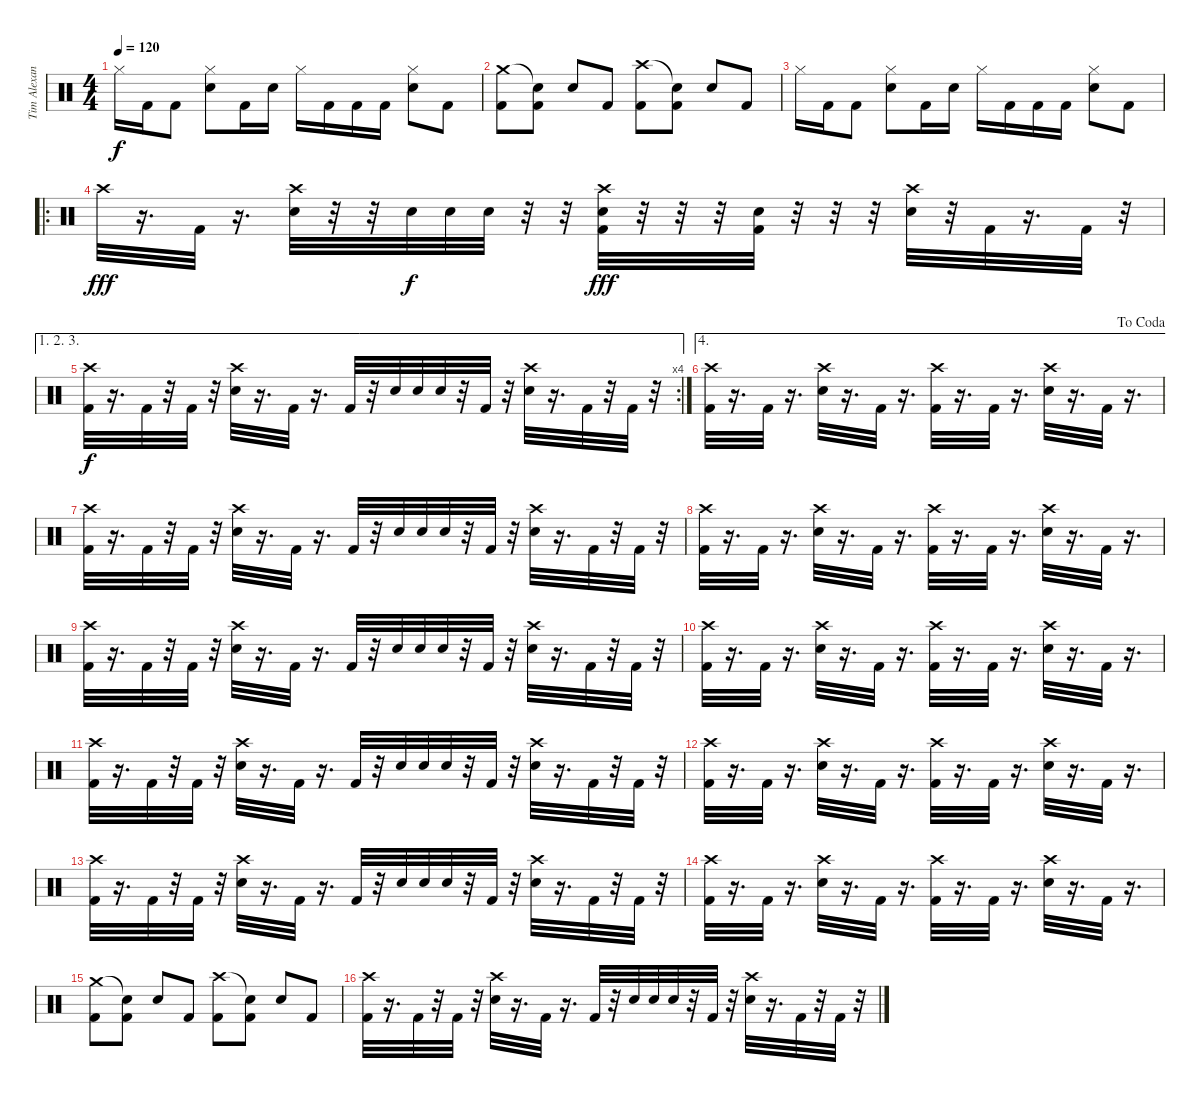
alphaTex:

\track ("Tim Alexander (Percussion)" "Tim Alexan") {instrument percussion}
\staff {score}
\articulation defaults
\ts (4 4)
\tempo 120
\clef neutral
\ks c "Hi-Hat (closed)".16{dy f} "Kick (hit) 2".16 "Kick (hit) 2".8
("Hi-Hat (closed)" "Electric Snare (hit)").8 "Kick (hit) 2".16 "Electric Snare (hit)".16 "Hi-Hat (closed)".16 "Kick (hit) 2".16 "Kick (hit) 2".16 "Kick (hit) 2".16 ("Hi-Hat (closed)" "Electric Snare (hit)").8 "Kick (hit) 2".8 |
("Crash medium (hit)" "Kick (hit) 2").8 ("Snare (hit)"{t} "Kick (hit) 2").8 "Electric Snare (hit)".8 "Kick (hit) 2".8 ("Crash high (hit)" "Kick (hit) 2").8 ("Snare (hit)"{t} "Kick (hit) 2").8 "Electric Snare (hit)".8 "Kick (hit) 2".8 |
"Hi-Hat (closed)".16 "Kick (hit) 2".16 "Kick (hit) 2".8 ("Hi-Hat (closed)" "Electric Snare (hit)").8 "Kick (hit) 2".16 "Electric Snare (hit)".16 "Hi-Hat (closed)".16 "Kick (hit) 2".16 "Kick (hit) 2".16 "Kick (hit) 2".16 ("Hi-Hat (closed)" "Electric Snare (hit)").8 "Kick (hit) 2".8 |
\ro "Crash high (hit)".32{dy fff}
r.16{d} "Kick (hit) 2".32 r.16{d} ("Crash high (hit)" "Electric Snare (hit)").32 r.32 r.32 "Electric Snare (hit)".32{dy f} "Electric Snare (hit)".32 "Electric Snare (hit)".32 r.32 r.32 ("Crash high (hit)" "Electric Snare (hit)" "Kick (hit) 2").32{dy fff} r.32 r.32 r.32 ("Electric Snare (hit)" "Kick (hit) 2").32 r.32 r.32 r.32 ("Crash high (hit)" "Electric Snare (hit)").32 r.32 "Kick (hit) 2".32 r.16{d} "Kick (hit) 2".32 r.32 |
\ae (1 2 3)
\rc 4
("Crash high (hit)" "Kick (hit) 2").32{dy f} r.16{d} "Kick (hit) 2".32 r.32 "Kick (hit) 2".32 r.32 ("Crash high (hit)" "Electric Snare (hit)").32 r.16{d} "Kick (hit) 2".32 r.16{d} "Kick (hit) 2".32 r.32 "Electric Snare (hit)".32 "Electric Snare (hit)".32 "Electric Snare (hit)".32 r.32 "Kick (hit) 2".32 r.32 ("Crash high (hit)" "Electric Snare (hit)").32 r.16{d} "Kick (hit) 2".32 r.32 "Kick (hit) 2".32 r.32 |
\ae 4
\jump dacoda
("Crash high (hit)" "Kick (hit) 2").32 r.16{d} "Kick (hit) 2".32 r.16{d} ("Crash high (hit)" "Electric Snare (hit)").32 r.16{d} "Kick (hit) 2".32 r.16{d} ("Crash high (hit)" "Kick (hit) 2").32 r.16{d} "Kick (hit) 2".32 r.16{d} ("Crash high (hit)" "Electric Snare (hit)").32 r.16{d} "Kick (hit) 2".32 r.16{d} |
("Crash high (hit)" "Kick (hit) 2").32 r.16{d} "Kick (hit) 2".32 r.32 "Kick (hit) 2".32 r.32 ("Crash high (hit)" "Electric Snare (hit)").32 r.16{d} "Kick (hit) 2".32 r.16{d} "Kick (hit) 2".32 r.32 "Electric Snare (hit)".32 "Electric Snare (hit)".32 "Electric Snare (hit)".32 r.32 "Kick (hit) 2".32 r.32 ("Crash high (hit)" "Electric Snare (hit)").32 r.16{d} "Kick (hit) 2".32 r.32 "Kick (hit) 2".32 r.32 |
("Crash high (hit)" "Kick (hit) 2").32 r.16{d} "Kick (hit) 2".32 r.16{d} ("Crash high (hit)" "Electric Snare (hit)").32 r.16{d} "Kick (hit) 2".32 r.16{d} ("Crash high (hit)" "Kick (hit) 2").32 r.16{d} "Kick (hit) 2".32 r.16{d} ("Crash high (hit)" "Electric Snare (hit)").32 r.16{d} "Kick (hit) 2".32 r.16{d} |
("Crash high (hit)" "Kick (hit) 2").32 r.16{d} "Kick (hit) 2".32 r.32 "Kick (hit) 2".32 r.32 ("Crash high (hit)" "Electric Snare (hit)").32 r.16{d} "Kick (hit) 2".32 r.16{d} "Kick (hit) 2".32 r.32 "Electric Snare (hit)".32 "Electric Snare (hit)".32 "Electric Snare (hit)".32 r.32 "Kick (hit) 2".32 r.32 ("Crash high (hit)" "Electric Snare (hit)").32 r.16{d} "Kick (hit) 2".32 r.32 "Kick (hit) 2".32 r.32 |
("Crash high (hit)" "Kick (hit) 2").32 r.16{d} "Kick (hit) 2".32 r.16{d} ("Crash high (hit)" "Electric Snare (hit)").32 r.16{d} "Kick (hit) 2".32 r.16{d} ("Crash high (hit)" "Kick (hit) 2").32 r.16{d} "Kick (hit) 2".32 r.16{d} ("Crash high (hit)" "Electric Snare (hit)").32 r.16{d} "Kick (hit) 2".32 r.16{d} |
("Crash high (hit)" "Kick (hit) 2").32 r.16{d} "Kick (hit) 2".32 r.32 "Kick (hit) 2".32 r.32 ("Crash high (hit)" "Electric Snare (hit)").32 r.16{d} "Kick (hit) 2".32 r.16{d} "Kick (hit) 2".32 r.32 "Electric Snare (hit)".32 "Electric Snare (hit)".32 "Electric Snare (hit)".32 r.32 "Kick (hit) 2".32 r.32 ("Crash high (hit)" "Electric Snare (hit)").32 r.16{d} "Kick (hit) 2".32 r.32 "Kick (hit) 2".32 r.32 |
("Crash high (hit)" "Kick (hit) 2").32 r.16{d} "Kick (hit) 2".32 r.16{d} ("Crash high (hit)" "Electric Snare (hit)").32 r.16{d} "Kick (hit) 2".32 r.16{d} ("Crash high (hit)" "Kick (hit) 2").32 r.16{d} "Kick (hit) 2".32 r.16{d} ("Crash high (hit)" "Electric Snare (hit)").32 r.16{d} "Kick (hit) 2".32 r.16{d} |
("Crash high (hit)" "Kick (hit) 2").32 r.16{d} "Kick (hit) 2".32 r.32 "Kick (hit) 2".32 r.32 ("Crash high (hit)" "Electric Snare (hit)").32 r.16{d} "Kick (hit) 2".32 r.16{d} "Kick (hit) 2".32 r.32 "Electric Snare (hit)".32 "Electric Snare (hit)".32 "Electric Snare (hit)".32 r.32 "Kick (hit) 2".32 r.32 ("Crash high (hit)" "Electric Snare (hit)").32 r.16{d} "Kick (hit) 2".32 r.32 "Kick (hit) 2".32 r.32 |
("Crash high (hit)" "Kick (hit) 2").32 r.16{d} "Kick (hit) 2".32 r.16{d} ("Crash high (hit)" "Electric Snare (hit)").32 r.16{d} "Kick (hit) 2".32 r.16{d} ("Crash high (hit)" "Kick (hit) 2").32 r.16{d} "Kick (hit) 2".32 r.16{d} ("Crash high (hit)" "Electric Snare (hit)").32 r.16{d} "Kick (hit) 2".32 r.16{d} |
("Crash medium (hit)" "Kick (hit) 2").8 ("Snare (hit)"{t} "Kick (hit) 2").8 "Electric Snare (hit)".8 "Kick (hit) 2".8 ("Crash high (hit)" "Kick (hit) 2").8 ("Snare (hit)"{t} "Kick (hit) 2").8 "Electric Snare (hit)".8 "Kick (hit) 2".8 |
("Crash high (hit)" "Kick (hit) 2").32 r.16{d} "Kick (hit) 2".32 r.32 "Kick (hit) 2".32 r.32 ("Crash high (hit)" "Electric Snare (hit)").32 r.16{d} "Kick (hit) 2".32 r.16{d} "Kick (hit) 2".32 r.32 "Electric Snare (hit)".32 "Electric Snare (hit)".32 "Electric Snare (hit)".32 r.32 "Kick (hit) 2".32 r.32 ("Crash high (hit)" "Electric Snare (hit)").32 r.16{d} "Kick (hit) 2".32 r.32 "Kick (hit) 2".32 r.32
